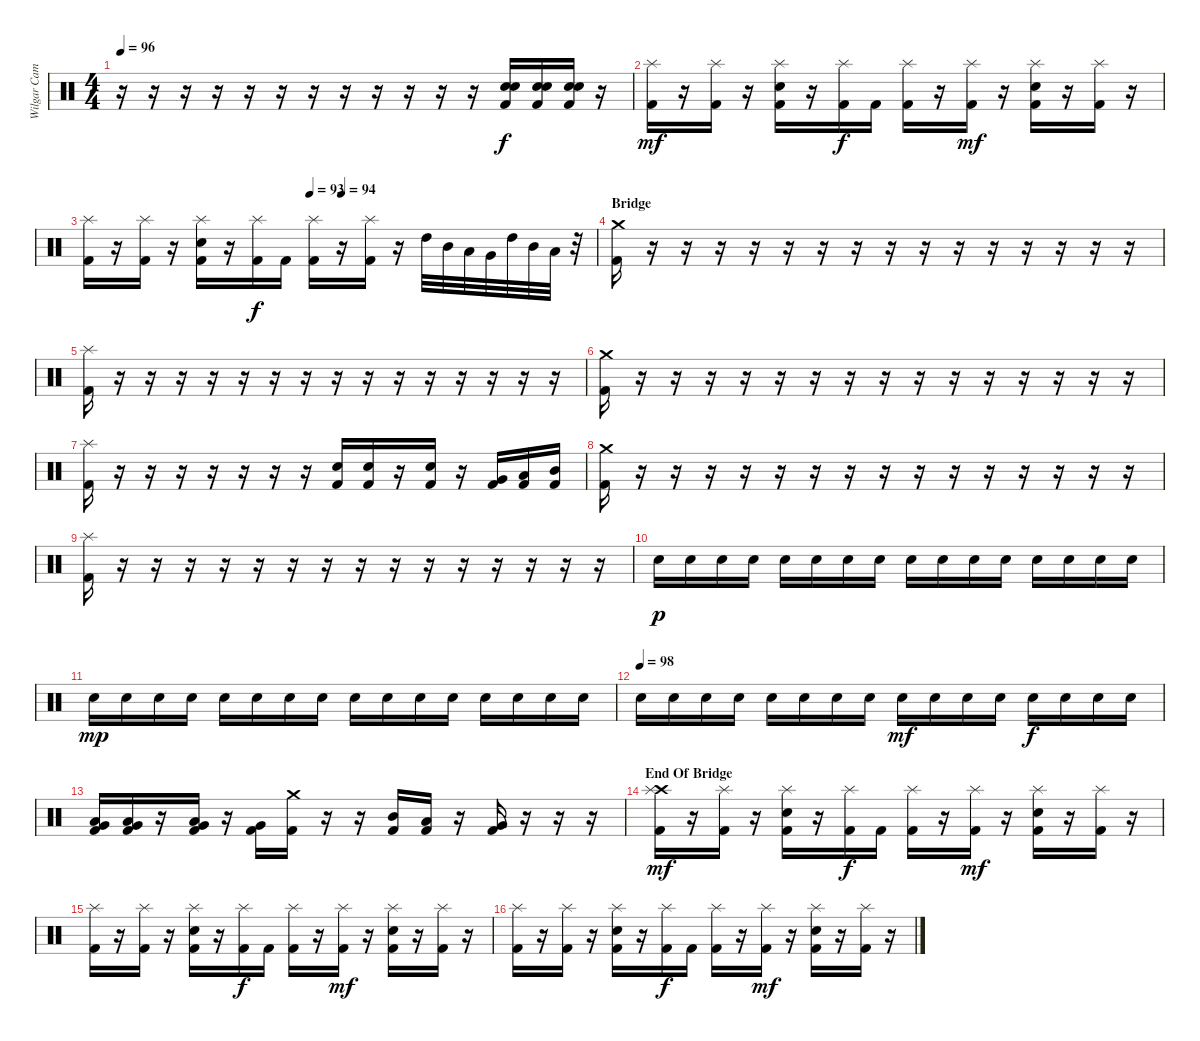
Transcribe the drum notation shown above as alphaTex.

\track ("Wilgar Campbell" "Wilgar Cam") {instrument percussion}
\staff {score}
\articulation defaults
\ts (4 4)
\tempo 96
\clef neutral
\ks c
r.16{dy mf} r.16 r.16 r.16 r.16 r.16 r.16 r.16 r.16 r.16 r.16 r.16 ("Electric Snare (hit)" "Snare (hit) 2" "Kick (hit) 2").16{dy f} ("Electric Snare (hit)" "Snare (hit) 2" "Kick (hit) 2").16 ("Electric Snare (hit)" "Snare (hit) 2" "Kick (hit) 2").16 r.16 |
("Splash (hit)" "Kick (hit) 2").16{dy mf} r.16 ("Splash (hit)" "Kick (hit) 2").16 r.16 ("Splash (hit)" "Snare (hit) 2" "Kick (hit) 2").16 r.16 ("Splash (hit)" "Kick (hit) 2").16{dy f} "Kick (hit) 2".16 ("Splash (hit)" "Kick (hit) 2").16 r.16 ("Splash (hit)" "Kick (hit) 2").16{dy mf} r.16 ("Splash (hit)" "Snare (hit) 2" "Kick (hit) 2").16 r.16 ("Splash (hit)" "Kick (hit) 2").16 r.16 |
\tempo (94 0.5)
\tempo (93 0.4375)
("Splash (hit)" "Kick (hit) 2").16 r.16 ("Splash (hit)" "Kick (hit) 2").16 r.16 ("Splash (hit)" "Snare (hit) 2" "Kick (hit) 2").16 r.16 ("Splash (hit)" "Kick (hit) 2").16{dy f} "Kick (hit) 2".16 ("Splash (hit)" "Kick (hit) 2").16 r.16 ("Splash (hit)" "Kick (hit) 2").16 r.16 "High Tom (hit)".32 "Mid Tom (hit)".32 "Low Tom (hit)".32 "Very Low Tom (hit)".32 "High Tom (hit)".32 "Mid Tom (hit)".32 "Low Tom (hit)".32 r.32 |
\section ("" "Bridge")
("Crash medium (hit)" "Kick (hit) 2").16 r.16 r.16 r.16 r.16 r.16 r.16 r.16 r.16 r.16 r.16 r.16 r.16 r.16 r.16 r.16 |
("Splash (hit)" "Kick (hit) 2").16 r.16 r.16 r.16 r.16 r.16 r.16 r.16 r.16 r.16 r.16 r.16 r.16 r.16 r.16 r.16 |
("Crash medium (hit)" "Kick (hit) 2").16 r.16 r.16 r.16 r.16 r.16 r.16 r.16 r.16 r.16 r.16 r.16 r.16 r.16 r.16 r.16 |
("Splash (hit)" "Kick (hit) 2").16 r.16 r.16 r.16 r.16 r.16 r.16 r.16 ("Snare (hit) 2" "Kick (hit) 2").16 ("Snare (hit) 2" "Kick (hit) 2").16 r.16 ("Snare (hit) 2" "Kick (hit) 2").16 r.16 ("Very Low Tom (hit)" "Kick (hit) 2").16 ("Low Tom (hit)" "Kick (hit) 2").16 ("Mid Tom (hit)" "Kick (hit) 2").16 |
("Crash medium (hit)" "Kick (hit) 2").16 r.16 r.16 r.16 r.16 r.16 r.16 r.16 r.16 r.16 r.16 r.16 r.16 r.16 r.16 r.16 |
("Splash (hit)" "Kick (hit) 2").16 r.16 r.16 r.16 r.16 r.16 r.16 r.16 r.16 r.16 r.16 r.16 r.16 r.16 r.16 r.16 |
"Electric Snare (hit)".16{dy p} "Snare (hit) 2".16 "Electric Snare (hit)".16 "Snare (hit) 2".16 "Electric Snare (hit)".16 "Snare (hit) 2".16 "Electric Snare (hit)".16 "Snare (hit) 2".16 "Electric Snare (hit)".16 "Snare (hit) 2".16 "Electric Snare (hit)".16 "Snare (hit) 2".16 "Electric Snare (hit)".16 "Snare (hit) 2".16 "Electric Snare (hit)".16 "Snare (hit) 2".16 |
"Electric Snare (hit)".16{dy mp} "Snare (hit) 2".16 "Electric Snare (hit)".16 "Snare (hit) 2".16 "Electric Snare (hit)".16 "Snare (hit) 2".16 "Electric Snare (hit)".16 "Snare (hit) 2".16 "Electric Snare (hit)".16 "Snare (hit) 2".16 "Electric Snare (hit)".16 "Snare (hit) 2".16 "Electric Snare (hit)".16 "Snare (hit) 2".16 "Electric Snare (hit)".16 "Snare (hit) 2".16 |
\tempo (98)
"Electric Snare (hit)".16 "Snare (hit) 2".16 "Electric Snare (hit)".16 "Snare (hit) 2".16 "Electric Snare (hit)".16 "Snare (hit) 2".16 "Electric Snare (hit)".16 "Snare (hit) 2".16 "Electric Snare (hit)".16{dy mf} "Snare (hit) 2".16 "Electric Snare (hit)".16 "Snare (hit) 2".16 "Electric Snare (hit)".16{dy f} "Snare (hit) 2".16 "Electric Snare (hit)".16 "Snare (hit) 2".16 |
("Very Low Tom (hit)" "Low Tom (hit)" "Kick (hit) 2").16 ("Very Low Tom (hit)" "Low Tom (hit)" "Kick (hit) 2").16 r.16 ("Very Low Tom (hit)" "Low Tom (hit)" "Kick (hit) 2").16 r.16 ("Very Low Tom (hit)" "Kick (hit) 2").16 ("Crash medium (hit)" "Kick (hit) 2").16 r.16 r.16 ("Mid Tom (hit)" "Kick (hit) 2").16 ("Low Tom (hit)" "Kick (hit) 2").16 r.16 ("Very Low Tom (hit)" "Kick (hit) 2").16 r.16 r.16 r.16 |
\section ("" "End Of Bridge")
("Crash high (hit)" "Splash (hit)" "Kick (hit) 2").16{dy mf} r.16 ("Splash (hit)" "Kick (hit) 2").16 r.16 ("Splash (hit)" "Snare (hit) 2" "Kick (hit) 2").16 r.16 ("Splash (hit)" "Kick (hit) 2").16{dy f} "Kick (hit) 2".16 ("Splash (hit)" "Kick (hit) 2").16 r.16 ("Splash (hit)" "Kick (hit) 2").16{dy mf} r.16 ("Splash (hit)" "Snare (hit) 2" "Kick (hit) 2").16 r.16 ("Splash (hit)" "Kick (hit) 2").16 r.16 |
("Splash (hit)" "Kick (hit) 2").16 r.16 ("Splash (hit)" "Kick (hit) 2").16 r.16 ("Splash (hit)" "Snare (hit) 2" "Kick (hit) 2").16 r.16 ("Splash (hit)" "Kick (hit) 2").16{dy f} "Kick (hit) 2".16 ("Splash (hit)" "Kick (hit) 2").16 r.16 ("Splash (hit)" "Kick (hit) 2").16{dy mf} r.16 ("Splash (hit)" "Snare (hit) 2" "Kick (hit) 2").16 r.16 ("Splash (hit)" "Kick (hit) 2").16 r.16 |
("Splash (hit)" "Kick (hit) 2").16 r.16 ("Splash (hit)" "Kick (hit) 2").16 r.16 ("Splash (hit)" "Snare (hit) 2" "Kick (hit) 2").16 r.16 ("Splash (hit)" "Kick (hit) 2").16{dy f} "Kick (hit) 2".16 ("Splash (hit)" "Kick (hit) 2").16 r.16 ("Splash (hit)" "Kick (hit) 2").16{dy mf} r.16 ("Splash (hit)" "Snare (hit) 2" "Kick (hit) 2").16 r.16 ("Splash (hit)" "Kick (hit) 2").16 r.16
